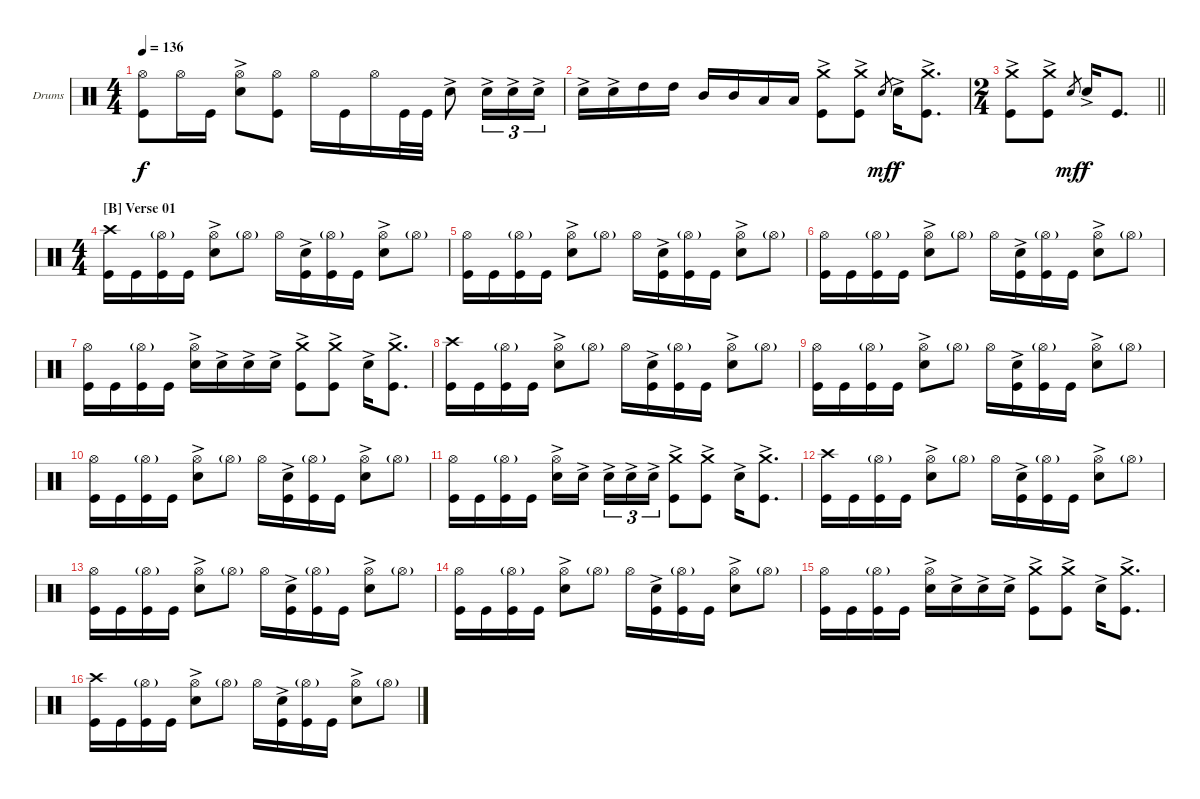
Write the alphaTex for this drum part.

\bracketExtendMode groupsimilarinstruments
\firstSystemTrackNameOrientation horizontal
\otherSystemsTrackNameOrientation horizontal
\track ("Drumkit" "Drums") {instrument percussion}
\staff {score}
\articulation defaults
\ts (4 4)
\tempo 136
\clef neutral
\ks c
("Hi-Hat (open)" "Kick (hit)").8{dy f} "Hi-Hat (open)".16 "Kick (hit)".16 ("Hi-Hat (open)" "Snare (hit) 2"{ac}).8 ("Hi-Hat (open)" "Kick (hit)").8 "Hi-Hat (open)".16 "Kick (hit)".16 "Hi-Hat (open)".16 "Kick (hit)".32 "Kick (hit)".32 "Snare (hit) 2"{ac}.8 "Snare (hit) 2"{ac}.16{tu (3 2)} "Snare (hit) 2"{ac}.16{tu (3 2)} "Snare (hit) 2"{ac}.16{tu (3 2)} |
"Snare (hit) 2"{ac}.16 "Snare (hit) 2"{ac}.16 "High Tom (hit)".16 "High Tom (hit)".16 "Mid Tom (hit)".16 "Mid Tom (hit)".16 "Low Tom (hit)".16 "Low Tom (hit)".16 ("Crash medium (hit)"{ac} "Kick (hit)").8 ("Crash medium (hit)"{ac} "Kick (hit)").8 "Snare (hit) 2".8{gr dy mf} "Snare (hit) 2"{ac}.16{dy f} ("Crash medium (hit)"{ac} "Kick (hit)").8{d} |
\ts (2 4)
\beaming (8 2 2)
\barLineRight lightlight
("Crash medium (hit)"{ac} "Kick (hit)").8 ("Crash medium (hit)"{ac} "Kick (hit)").8 "Snare (hit) 2".8{gr dy mf} "Snare (hit) 2"{ac}.16{dy f} "Kick (hit)".8{d} |
\ts (4 4)
\beaming (8 2 2 2 2)
\section ("B" "Verse 01")
("Crash high (hit)" "Kick (hit)").16 "Kick (hit)".16 ("Kick (hit)" "Hi-Hat (open)"{g}).16 "Kick (hit)".16 ("Hi-Hat (open)" "Snare (hit) 2"{ac}).8 "Hi-Hat (open)"{g}.8 "Hi-Hat (open)".16 ("Snare (hit) 2"{ac} "Kick (hit)").16 ("Kick (hit)" "Hi-Hat (open)"{g}).16 "Kick (hit)".16 ("Hi-Hat (open)" "Snare (hit) 2"{ac}).8 "Hi-Hat (open)"{g}.8 |
("Hi-Hat (open)" "Kick (hit)").16 "Kick (hit)".16 ("Kick (hit)" "Hi-Hat (open)"{g}).16 "Kick (hit)".16 ("Hi-Hat (open)" "Snare (hit) 2"{ac}).8 "Hi-Hat (open)"{g}.8 "Hi-Hat (open)".16 ("Snare (hit) 2"{ac} "Kick (hit)").16 ("Kick (hit)" "Hi-Hat (open)"{g}).16 "Kick (hit)".16 ("Hi-Hat (open)" "Snare (hit) 2"{ac}).8 "Hi-Hat (open)"{g}.8 |
("Hi-Hat (open)" "Kick (hit)").16 "Kick (hit)".16 ("Kick (hit)" "Hi-Hat (open)"{g}).16 "Kick (hit)".16 ("Hi-Hat (open)" "Snare (hit) 2"{ac}).8 "Hi-Hat (open)"{g}.8 "Hi-Hat (open)".16 ("Snare (hit) 2"{ac} "Kick (hit)").16 ("Kick (hit)" "Hi-Hat (open)"{g}).16 "Kick (hit)".16 ("Hi-Hat (open)" "Snare (hit) 2"{ac}).8 "Hi-Hat (open)"{g}.8 |
("Hi-Hat (open)" "Kick (hit)").16 "Kick (hit)".16 ("Kick (hit)" "Hi-Hat (open)"{g}).16 "Kick (hit)".16 ("Hi-Hat (open)" "Snare (hit) 2"{ac}).16 "Snare (hit) 2"{ac}.16 "Snare (hit) 2"{ac}.16 "Snare (hit) 2"{ac}.16 ("Crash medium (hit)"{ac} "Kick (hit)").8 ("Crash medium (hit)"{ac} "Kick (hit)").8 "Snare (hit) 2"{ac}.16 ("Crash medium (hit)"{ac} "Kick (hit)").8{d} |
("Crash high (hit)" "Kick (hit)").16 "Kick (hit)".16 ("Kick (hit)" "Hi-Hat (open)"{g}).16 "Kick (hit)".16 ("Hi-Hat (open)" "Snare (hit) 2"{ac}).8 "Hi-Hat (open)"{g}.8 "Hi-Hat (open)".16 ("Snare (hit) 2"{ac} "Kick (hit)").16 ("Kick (hit)" "Hi-Hat (open)"{g}).16 "Kick (hit)".16 ("Hi-Hat (open)" "Snare (hit) 2"{ac}).8 "Hi-Hat (open)"{g}.8 |
("Hi-Hat (open)" "Kick (hit)").16 "Kick (hit)".16 ("Kick (hit)" "Hi-Hat (open)"{g}).16 "Kick (hit)".16 ("Hi-Hat (open)" "Snare (hit) 2"{ac}).8 "Hi-Hat (open)"{g}.8 "Hi-Hat (open)".16 ("Snare (hit) 2"{ac} "Kick (hit)").16 ("Kick (hit)" "Hi-Hat (open)"{g}).16 "Kick (hit)".16 ("Hi-Hat (open)" "Snare (hit) 2"{ac}).8 "Hi-Hat (open)"{g}.8 |
("Hi-Hat (open)" "Kick (hit)").16 "Kick (hit)".16 ("Kick (hit)" "Hi-Hat (open)"{g}).16 "Kick (hit)".16 ("Hi-Hat (open)" "Snare (hit) 2"{ac}).8 "Hi-Hat (open)"{g}.8 "Hi-Hat (open)".16 ("Snare (hit) 2"{ac} "Kick (hit)").16 ("Kick (hit)" "Hi-Hat (open)"{g}).16 "Kick (hit)".16 ("Hi-Hat (open)" "Snare (hit) 2"{ac}).8 "Hi-Hat (open)"{g}.8 |
("Hi-Hat (open)" "Kick (hit)").16 "Kick (hit)".16 ("Kick (hit)" "Hi-Hat (open)"{g}).16 "Kick (hit)".16 ("Hi-Hat (open)" "Snare (hit) 2"{ac}).16 "Snare (hit) 2"{ac}.16 "Snare (hit) 2"{ac}.16{tu (3 2)} "Snare (hit) 2"{ac}.16{tu (3 2)} "Snare (hit) 2"{ac}.16{tu (3 2)} ("Crash medium (hit)"{ac} "Kick (hit)").8 ("Crash medium (hit)"{ac} "Kick (hit)").8 "Snare (hit) 2"{ac}.16 ("Crash medium (hit)"{ac} "Kick (hit)").8{d} |
("Crash high (hit)" "Kick (hit)").16 "Kick (hit)".16 ("Kick (hit)" "Hi-Hat (open)"{g}).16 "Kick (hit)".16 ("Hi-Hat (open)" "Snare (hit) 2"{ac}).8 "Hi-Hat (open)"{g}.8 "Hi-Hat (open)".16 ("Snare (hit) 2"{ac} "Kick (hit)").16 ("Kick (hit)" "Hi-Hat (open)"{g}).16 "Kick (hit)".16 ("Hi-Hat (open)" "Snare (hit) 2"{ac}).8 "Hi-Hat (open)"{g}.8 |
("Hi-Hat (open)" "Kick (hit)").16 "Kick (hit)".16 ("Kick (hit)" "Hi-Hat (open)"{g}).16 "Kick (hit)".16 ("Hi-Hat (open)" "Snare (hit) 2"{ac}).8 "Hi-Hat (open)"{g}.8 "Hi-Hat (open)".16 ("Snare (hit) 2"{ac} "Kick (hit)").16 ("Kick (hit)" "Hi-Hat (open)"{g}).16 "Kick (hit)".16 ("Hi-Hat (open)" "Snare (hit) 2"{ac}).8 "Hi-Hat (open)"{g}.8 |
("Hi-Hat (open)" "Kick (hit)").16 "Kick (hit)".16 ("Kick (hit)" "Hi-Hat (open)"{g}).16 "Kick (hit)".16 ("Hi-Hat (open)" "Snare (hit) 2"{ac}).8 "Hi-Hat (open)"{g}.8 "Hi-Hat (open)".16 ("Snare (hit) 2"{ac} "Kick (hit)").16 ("Kick (hit)" "Hi-Hat (open)"{g}).16 "Kick (hit)".16 ("Hi-Hat (open)" "Snare (hit) 2"{ac}).8 "Hi-Hat (open)"{g}.8 |
("Hi-Hat (open)" "Kick (hit)").16 "Kick (hit)".16 ("Kick (hit)" "Hi-Hat (open)"{g}).16 "Kick (hit)".16 ("Hi-Hat (open)" "Snare (hit) 2"{ac}).16 "Snare (hit) 2"{ac}.16 "Snare (hit) 2"{ac}.16 "Snare (hit) 2"{ac}.16 ("Crash medium (hit)"{ac} "Kick (hit)").8 ("Crash medium (hit)"{ac} "Kick (hit)").8 "Snare (hit) 2"{ac}.16 ("Crash medium (hit)"{ac} "Kick (hit)").8{d} |
("Crash high (hit)" "Kick (hit)").16 "Kick (hit)".16 ("Kick (hit)" "Hi-Hat (open)"{g}).16 "Kick (hit)".16 ("Hi-Hat (open)" "Snare (hit) 2"{ac}).8 "Hi-Hat (open)"{g}.8 "Hi-Hat (open)".16 ("Snare (hit) 2"{ac} "Kick (hit)").16 ("Kick (hit)" "Hi-Hat (open)"{g}).16 "Kick (hit)".16 ("Hi-Hat (open)" "Snare (hit) 2"{ac}).8 "Hi-Hat (open)"{g}.8
